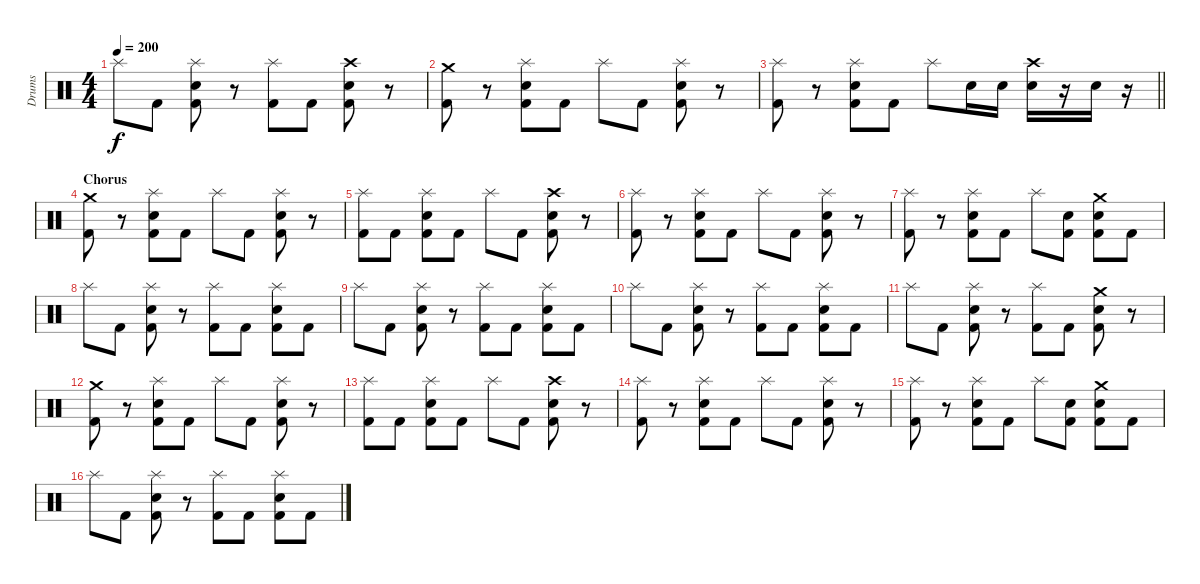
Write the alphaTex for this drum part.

\track ("Drums" "Drums") {instrument percussion}
\staff {score}
\articulation defaults
\ts (4 4)
\tempo 200
\clef neutral
\ks c "Splash (hit)".8{dy f} "Kick (hit) 2".8
("Splash (hit)" "Snare (hit) 2" "Kick (hit) 2").8 r.8 ("Splash (hit)" "Kick (hit) 2").8 "Kick (hit) 2".8 ("Crash high (hit)" "Snare (hit) 2" "Kick (hit) 2").8 r.8 |
("Crash medium (hit)" "Kick (hit) 2").8 r.8 ("Splash (hit)" "Snare (hit) 2" "Kick (hit) 2").8 "Kick (hit) 2".8 "Splash (hit)".8 "Kick (hit) 2".8 ("Splash (hit)" "Snare (hit) 2" "Kick (hit) 2").8 r.8 |
\barLineRight lightlight
("Splash (hit)" "Kick (hit) 2").8 r.8 ("Splash (hit)" "Snare (hit) 2" "Kick (hit) 2").8 "Kick (hit) 2".8 "Splash (hit)".8 "Snare (hit) 2".16 "Snare (hit) 2".16 ("Crash high (hit)" "Snare (hit) 2").16 r.16 "Snare (hit) 2".16 r.16 |
\section ("" "Chorus")
("Crash medium (hit)" "Kick (hit) 2").8 r.8 ("Splash (hit)" "Snare (hit) 2" "Kick (hit) 2").8 "Kick (hit) 2".8 "Splash (hit)".8 "Kick (hit) 2".8 ("Splash (hit)" "Snare (hit) 2" "Kick (hit) 2").8 r.8 |
("Splash (hit)" "Kick (hit) 2").8 "Kick (hit) 2".8 ("Splash (hit)" "Snare (hit) 2" "Kick (hit) 2").8 "Kick (hit) 2".8 "Splash (hit)".8 "Kick (hit) 2".8 ("Crash high (hit)" "Snare (hit) 2" "Kick (hit) 2").8 r.8 |
("Splash (hit)" "Kick (hit) 2").8 r.8 ("Splash (hit)" "Snare (hit) 2" "Kick (hit) 2").8 "Kick (hit) 2".8 "Splash (hit)".8 "Kick (hit) 2".8 ("Splash (hit)" "Snare (hit) 2" "Kick (hit) 2").8 r.8 |
("Splash (hit)" "Kick (hit) 2").8 r.8 ("Splash (hit)" "Snare (hit) 2" "Kick (hit) 2").8 "Kick (hit) 2".8 "Splash (hit)".8 ("Snare (hit) 2" "Kick (hit) 2").8 ("Crash medium (hit)" "Snare (hit) 2" "Kick (hit) 2").8 "Kick (hit) 2".8 |
"Splash (hit)".8 "Kick (hit) 2".8 ("Splash (hit)" "Snare (hit) 2" "Kick (hit) 2").8 r.8 ("Splash (hit)" "Kick (hit) 2").8 "Kick (hit) 2".8 ("Splash (hit)" "Snare (hit) 2" "Kick (hit) 2").8 "Kick (hit) 2".8 |
"Splash (hit)".8 "Kick (hit) 2".8 ("Splash (hit)" "Snare (hit) 2" "Kick (hit) 2").8 r.8 ("Splash (hit)" "Kick (hit) 2").8 "Kick (hit) 2".8 ("Splash (hit)" "Snare (hit) 2" "Kick (hit) 2").8 "Kick (hit) 2".8 |
"Splash (hit)".8 "Kick (hit) 2".8 ("Splash (hit)" "Snare (hit) 2" "Kick (hit) 2").8 r.8 ("Splash (hit)" "Kick (hit) 2").8 "Kick (hit) 2".8 ("Splash (hit)" "Snare (hit) 2" "Kick (hit) 2").8 "Kick (hit) 2".8 |
"Splash (hit)".8 "Kick (hit) 2".8 ("Splash (hit)" "Snare (hit) 2" "Kick (hit) 2").8 r.8 ("Splash (hit)" "Kick (hit) 2").8 "Kick (hit) 2".8 ("Crash medium (hit)" "Snare (hit) 2" "Kick (hit) 2").8 r.8 |
("Crash medium (hit)" "Kick (hit) 2").8 r.8 ("Splash (hit)" "Snare (hit) 2" "Kick (hit) 2").8 "Kick (hit) 2".8 "Splash (hit)".8 "Kick (hit) 2".8 ("Splash (hit)" "Snare (hit) 2" "Kick (hit) 2").8 r.8 |
("Splash (hit)" "Kick (hit) 2").8 "Kick (hit) 2".8 ("Splash (hit)" "Snare (hit) 2" "Kick (hit) 2").8 "Kick (hit) 2".8 "Splash (hit)".8 "Kick (hit) 2".8 ("Crash high (hit)" "Snare (hit) 2" "Kick (hit) 2").8 r.8 |
("Splash (hit)" "Kick (hit) 2").8 r.8 ("Splash (hit)" "Snare (hit) 2" "Kick (hit) 2").8 "Kick (hit) 2".8 "Splash (hit)".8 "Kick (hit) 2".8 ("Splash (hit)" "Snare (hit) 2" "Kick (hit) 2").8 r.8 |
("Splash (hit)" "Kick (hit) 2").8 r.8 ("Splash (hit)" "Snare (hit) 2" "Kick (hit) 2").8 "Kick (hit) 2".8 "Splash (hit)".8 ("Snare (hit) 2" "Kick (hit) 2").8 ("Crash medium (hit)" "Snare (hit) 2" "Kick (hit) 2").8 "Kick (hit) 2".8 |
"Splash (hit)".8 "Kick (hit) 2".8 ("Splash (hit)" "Snare (hit) 2" "Kick (hit) 2").8 r.8 ("Splash (hit)" "Kick (hit) 2").8 "Kick (hit) 2".8 ("Splash (hit)" "Snare (hit) 2" "Kick (hit) 2").8 "Kick (hit) 2".8
